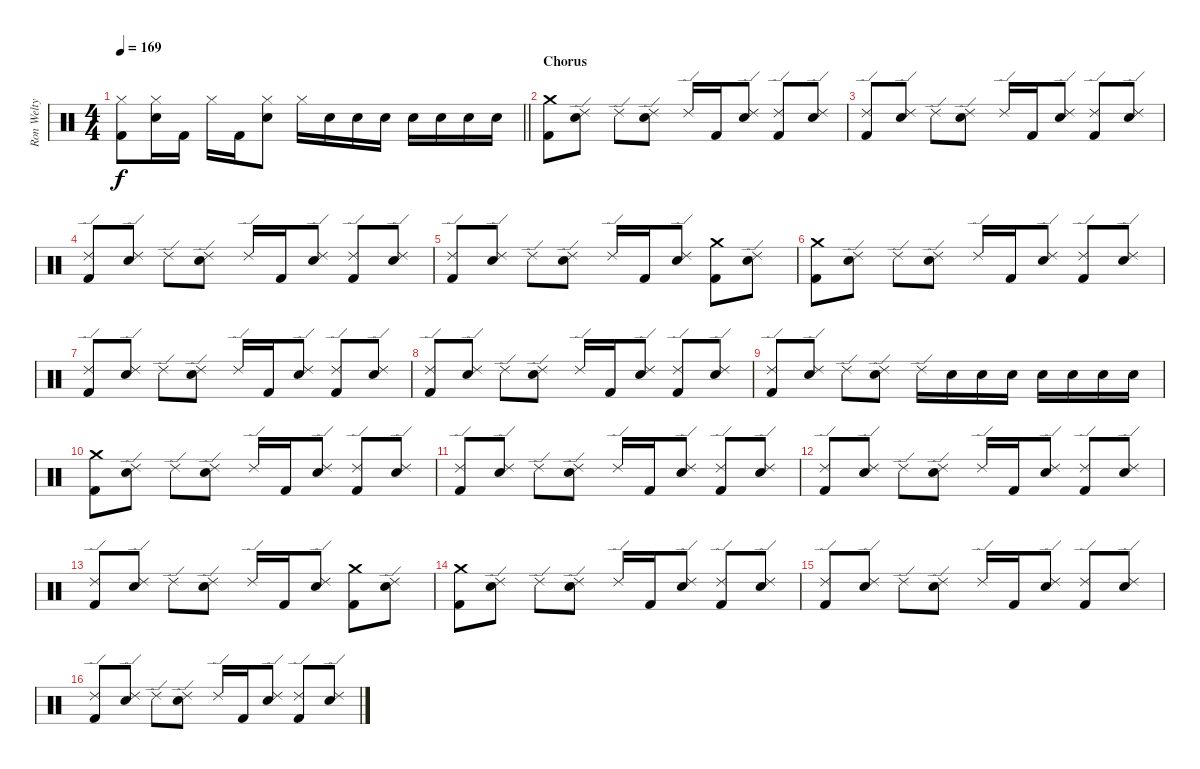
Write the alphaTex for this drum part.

\track ("Ron Welty - Drums" "Ron Welty ") {instrument percussion}
\staff {score}
\articulation defaults
\ts (4 4)
\tempo 169
\clef neutral
\barLineRight lightlight
\ks c
("Hi-Hat (closed)" "Kick (hit) 2").8{dy f} ("Hi-Hat (closed)" "Electric Snare (hit)").16 "Kick (hit) 2".16 "Hi-Hat (closed)".16 "Kick (hit) 2".16 ("Hi-Hat (closed)" "Electric Snare (hit)").8 "Hi-Hat (closed)".16 "Electric Snare (hit)".16 "Electric Snare (hit)".16 "Electric Snare (hit)".16 "Electric Snare (hit)".16 "Electric Snare (hit)".16 "Electric Snare (hit)".16 "Electric Snare (hit)".16 |
\section ("" "Chorus")
("Crash medium (hit)" "Kick (hit) 2").8 ("Ride (edge) 2" "Electric Snare (hit)").8 "Ride (edge) 2".8 ("Ride (edge) 2" "Electric Snare (hit)").8 "Ride (edge) 2".16 "Kick (hit) 2".16 ("Ride (edge) 2" "Electric Snare (hit)").8 ("Ride (edge) 2" "Kick (hit) 2").8 ("Ride (edge) 2" "Electric Snare (hit)").8 |
("Ride (edge) 2" "Kick (hit) 2").8 ("Ride (edge) 2" "Electric Snare (hit)").8 "Ride (edge) 2".8 ("Ride (edge) 2" "Electric Snare (hit)").8 "Ride (edge) 2".16 "Kick (hit) 2".16 ("Ride (edge) 2" "Electric Snare (hit)").8 ("Ride (edge) 2" "Kick (hit) 2").8 ("Ride (edge) 2" "Electric Snare (hit)").8 |
("Ride (edge) 2" "Kick (hit) 2").8 ("Ride (edge) 2" "Electric Snare (hit)").8 "Ride (edge) 2".8 ("Ride (edge) 2" "Electric Snare (hit)").8 "Ride (edge) 2".16 "Kick (hit) 2".16 ("Ride (edge) 2" "Electric Snare (hit)").8 ("Ride (edge) 2" "Kick (hit) 2").8 ("Ride (edge) 2" "Electric Snare (hit)").8 |
("Ride (edge) 2" "Kick (hit) 2").8 ("Ride (edge) 2" "Electric Snare (hit)").8 "Ride (edge) 2".8 ("Ride (edge) 2" "Electric Snare (hit)").8 "Ride (edge) 2".16 "Kick (hit) 2".16 ("Ride (edge) 2" "Electric Snare (hit)").8 ("Crash medium (hit)" "Kick (hit) 2").8 ("Ride (edge) 2" "Electric Snare (hit)").8 |
("Crash medium (hit)" "Kick (hit) 2").8 ("Ride (edge) 2" "Electric Snare (hit)").8 "Ride (edge) 2".8 ("Ride (edge) 2" "Electric Snare (hit)").8 "Ride (edge) 2".16 "Kick (hit) 2".16 ("Ride (edge) 2" "Electric Snare (hit)").8 ("Ride (edge) 2" "Kick (hit) 2").8 ("Ride (edge) 2" "Electric Snare (hit)").8 |
("Ride (edge) 2" "Kick (hit) 2").8 ("Ride (edge) 2" "Electric Snare (hit)").8 "Ride (edge) 2".8 ("Ride (edge) 2" "Electric Snare (hit)").8 "Ride (edge) 2".16 "Kick (hit) 2".16 ("Ride (edge) 2" "Electric Snare (hit)").8 ("Ride (edge) 2" "Kick (hit) 2").8 ("Ride (edge) 2" "Electric Snare (hit)").8 |
("Ride (edge) 2" "Kick (hit) 2").8 ("Ride (edge) 2" "Electric Snare (hit)").8 "Ride (edge) 2".8 ("Ride (edge) 2" "Electric Snare (hit)").8 "Ride (edge) 2".16 "Kick (hit) 2".16 ("Ride (edge) 2" "Electric Snare (hit)").8 ("Ride (edge) 2" "Kick (hit) 2").8 ("Ride (edge) 2" "Electric Snare (hit)").8 |
("Ride (edge) 2" "Kick (hit) 2").8 ("Ride (edge) 2" "Electric Snare (hit)").8 "Ride (edge) 2".8 ("Ride (edge) 2" "Electric Snare (hit)").8 "Ride (edge) 2".16 "Electric Snare (hit)".16 "Electric Snare (hit)".16 "Electric Snare (hit)".16 "Electric Snare (hit)".16 "Electric Snare (hit)".16 "Electric Snare (hit)".16 "Electric Snare (hit)".16 |
("Crash medium (hit)" "Kick (hit) 2").8 ("Ride (edge) 2" "Electric Snare (hit)").8 "Ride (edge) 2".8 ("Ride (edge) 2" "Electric Snare (hit)").8 "Ride (edge) 2".16 "Kick (hit) 2".16 ("Ride (edge) 2" "Electric Snare (hit)").8 ("Ride (edge) 2" "Kick (hit) 2").8 ("Ride (edge) 2" "Electric Snare (hit)").8 |
("Ride (edge) 2" "Kick (hit) 2").8 ("Ride (edge) 2" "Electric Snare (hit)").8 "Ride (edge) 2".8 ("Ride (edge) 2" "Electric Snare (hit)").8 "Ride (edge) 2".16 "Kick (hit) 2".16 ("Ride (edge) 2" "Electric Snare (hit)").8 ("Ride (edge) 2" "Kick (hit) 2").8 ("Ride (edge) 2" "Electric Snare (hit)").8 |
("Ride (edge) 2" "Kick (hit) 2").8 ("Ride (edge) 2" "Electric Snare (hit)").8 "Ride (edge) 2".8 ("Ride (edge) 2" "Electric Snare (hit)").8 "Ride (edge) 2".16 "Kick (hit) 2".16 ("Ride (edge) 2" "Electric Snare (hit)").8 ("Ride (edge) 2" "Kick (hit) 2").8 ("Ride (edge) 2" "Electric Snare (hit)").8 |
("Ride (edge) 2" "Kick (hit) 2").8 ("Ride (edge) 2" "Electric Snare (hit)").8 "Ride (edge) 2".8 ("Ride (edge) 2" "Electric Snare (hit)").8 "Ride (edge) 2".16 "Kick (hit) 2".16 ("Ride (edge) 2" "Electric Snare (hit)").8 ("Crash medium (hit)" "Kick (hit) 2").8 ("Ride (edge) 2" "Electric Snare (hit)").8 |
("Crash medium (hit)" "Kick (hit) 2").8 ("Ride (edge) 2" "Electric Snare (hit)").8 "Ride (edge) 2".8 ("Ride (edge) 2" "Electric Snare (hit)").8 "Ride (edge) 2".16 "Kick (hit) 2".16 ("Ride (edge) 2" "Electric Snare (hit)").8 ("Ride (edge) 2" "Kick (hit) 2").8 ("Ride (edge) 2" "Electric Snare (hit)").8 |
("Ride (edge) 2" "Kick (hit) 2").8 ("Ride (edge) 2" "Electric Snare (hit)").8 "Ride (edge) 2".8 ("Ride (edge) 2" "Electric Snare (hit)").8 "Ride (edge) 2".16 "Kick (hit) 2".16 ("Ride (edge) 2" "Electric Snare (hit)").8 ("Ride (edge) 2" "Kick (hit) 2").8 ("Ride (edge) 2" "Electric Snare (hit)").8 |
("Ride (edge) 2" "Kick (hit) 2").8 ("Ride (edge) 2" "Electric Snare (hit)").8 "Ride (edge) 2".8 ("Ride (edge) 2" "Electric Snare (hit)").8 "Ride (edge) 2".16 "Kick (hit) 2".16 ("Ride (edge) 2" "Electric Snare (hit)").8 ("Ride (edge) 2" "Kick (hit) 2").8 ("Ride (edge) 2" "Electric Snare (hit)").8
